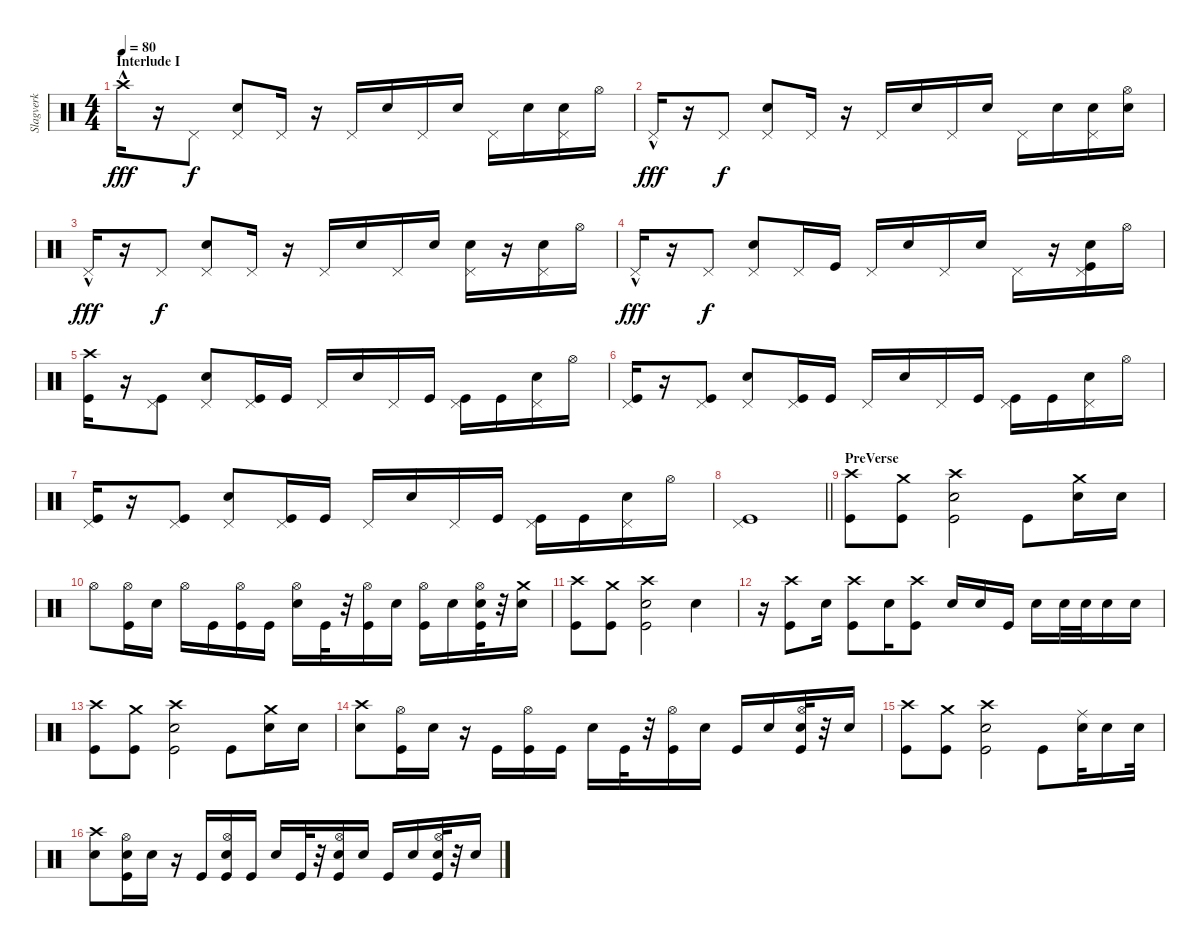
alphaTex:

\track ("Slagverk" "Slagverk") {instrument percussion}
\staff {score}
\articulation defaults
\ts (4 4)
\section ("" "Interlude I")
\tempo 80
\clef neutral
\ks c "Crash high (hit)"{hac}.16{dy fff}
r.16 "Pedal Hi-Hat (hit)".8{dy f} ("Pedal Hi-Hat (hit)" "Snare (hit) 2").8 "Pedal Hi-Hat (hit)".16 r.16 "Pedal Hi-Hat (hit)".16 "Snare (hit) 2".16 "Pedal Hi-Hat (hit)".16 "Snare (hit) 2".16 "Pedal Hi-Hat (hit)".16 "Snare (hit) 2".16 ("Pedal Hi-Hat (hit)" "Snare (hit) 2").16 "Hi-Hat (open)".16 |
"Pedal Hi-Hat (hit)"{hac}.16{dy fff} r.16 "Pedal Hi-Hat (hit)".8{dy f} ("Pedal Hi-Hat (hit)" "Snare (hit) 2").8 "Pedal Hi-Hat (hit)".16 r.16 "Pedal Hi-Hat (hit)".16 "Snare (hit) 2".16 "Pedal Hi-Hat (hit)".16 "Snare (hit) 2".16 "Pedal Hi-Hat (hit)".16 "Snare (hit) 2".16 ("Pedal Hi-Hat (hit)" "Snare (hit) 2").16 ("Hi-Hat (open)" "Snare (hit) 2").16 |
"Pedal Hi-Hat (hit)"{hac}.16{dy fff} r.16 "Pedal Hi-Hat (hit)".8{dy f} ("Pedal Hi-Hat (hit)" "Snare (hit) 2").8 "Pedal Hi-Hat (hit)".16 r.16 "Pedal Hi-Hat (hit)".16 "Snare (hit) 2".16 "Pedal Hi-Hat (hit)".16 "Snare (hit) 2".16 ("Pedal Hi-Hat (hit)" "Snare (hit) 2").16 r.16 ("Pedal Hi-Hat (hit)" "Snare (hit) 2").16 "Hi-Hat (open)".16 |
"Pedal Hi-Hat (hit)"{hac}.16{dy fff} r.16 "Pedal Hi-Hat (hit)".8{dy f} ("Pedal Hi-Hat (hit)" "Snare (hit) 2").8 "Pedal Hi-Hat (hit)".16 "Kick (hit)".16 "Pedal Hi-Hat (hit)".16 "Snare (hit) 2".16 "Pedal Hi-Hat (hit)".16 "Snare (hit) 2".16 "Pedal Hi-Hat (hit)".16 r.16 ("Pedal Hi-Hat (hit)" "Snare (hit) 2" "Kick (hit)").16 "Hi-Hat (open)".16 |
("Crash high (hit)" "Kick (hit)").16 r.16 ("Pedal Hi-Hat (hit)" "Kick (hit)").8 ("Pedal Hi-Hat (hit)" "Snare (hit) 2").8 ("Pedal Hi-Hat (hit)" "Kick (hit)").16 "Kick (hit)".16 "Pedal Hi-Hat (hit)".16 "Snare (hit) 2".16 "Pedal Hi-Hat (hit)".16 "Kick (hit)".16 ("Pedal Hi-Hat (hit)" "Kick (hit)").16 "Kick (hit)".16 ("Pedal Hi-Hat (hit)" "Snare (hit) 2").16 "Hi-Hat (open)".16 |
("Pedal Hi-Hat (hit)" "Kick (hit)").16 r.16 ("Pedal Hi-Hat (hit)" "Kick (hit)").8 ("Pedal Hi-Hat (hit)" "Snare (hit) 2").8 ("Pedal Hi-Hat (hit)" "Kick (hit)").16 "Kick (hit)".16 "Pedal Hi-Hat (hit)".16 "Snare (hit) 2".16 "Pedal Hi-Hat (hit)".16 "Kick (hit)".16 ("Pedal Hi-Hat (hit)" "Kick (hit)").16 "Kick (hit)".16 ("Pedal Hi-Hat (hit)" "Snare (hit) 2").16 "Hi-Hat (open)".16 |
("Pedal Hi-Hat (hit)" "Kick (hit)").16 r.16 ("Pedal Hi-Hat (hit)" "Kick (hit)").8 ("Pedal Hi-Hat (hit)" "Snare (hit) 2").8 ("Pedal Hi-Hat (hit)" "Kick (hit)").16 "Kick (hit)".16 "Pedal Hi-Hat (hit)".16 "Snare (hit) 2".16 "Pedal Hi-Hat (hit)".16 "Kick (hit)".16 ("Pedal Hi-Hat (hit)" "Kick (hit)").16 "Kick (hit)".16 ("Pedal Hi-Hat (hit)" "Snare (hit) 2").16 "Hi-Hat (open)".16 |
\barLineRight lightlight
("Pedal Hi-Hat (hit)" "Kick (hit)").1 |
\section ("" "PreVerse")
("Crash high (hit)" "Kick (hit)").8 ("Crash medium (hit)" "Kick (hit)").8 ("Crash high (hit)" "Snare (hit) 2" "Kick (hit)").2 "Kick (hit)".8 ("Crash medium (hit)" "Snare (hit) 2").16 "Snare (hit) 2".16 |
"Hi-Hat (open)".8 ("Hi-Hat (open)" "Kick (hit)").16 "Snare (hit) 2".16 "Hi-Hat (open)".16 "Kick (hit)".16 ("Hi-Hat (open)" "Kick (hit)").16 "Kick (hit)".16 ("Hi-Hat (open)" "Snare (hit) 2").16 "Kick (hit)".32 r.32 ("Hi-Hat (open)" "Kick (hit)").16 "Snare (hit) 2".16 ("Hi-Hat (open)" "Kick (hit)").16 "Snare (hit) 2".16 ("Hi-Hat (open)" "Snare (hit) 2" "Kick (hit)").32 r.32 ("Crash medium (hit)" "Snare (hit) 2").16 |
("Crash high (hit)" "Kick (hit)").8 ("Crash medium (hit)" "Kick (hit)").8 ("Crash high (hit)" "Snare (hit) 2" "Kick (hit)").2 "Snare (hit) 2".4 |
r.16 ("Crash high (hit)" "Kick (hit)").8 "Snare (hit) 2".16 ("Crash high (hit)" "Kick (hit)").8 "Snare (hit) 2".16 ("Crash high (hit)" "Kick (hit)").8 "Snare (hit) 2".16 "Snare (hit) 2".16 "Kick (hit)".16 "Snare (hit) 2".16 "Snare (hit) 2".32 "Snare (hit) 2".32 "Snare (hit) 2".16 "Snare (hit) 2".16 |
("Crash high (hit)" "Kick (hit)").8 ("Crash medium (hit)" "Kick (hit)").8 ("Crash high (hit)" "Snare (hit) 2" "Kick (hit)").2 "Kick (hit)".8 ("Crash medium (hit)" "Snare (hit) 2").16 "Snare (hit) 2".16 |
("Crash high (hit)" "Snare (hit) 2").8 ("Hi-Hat (open)" "Kick (hit)").16 "Snare (hit) 2".16 r.16 "Kick (hit)".16 ("Hi-Hat (open)" "Kick (hit)").16 "Kick (hit)".16 "Snare (hit) 2".16 "Kick (hit)".32 r.32 ("Hi-Hat (open)" "Kick (hit)").16 "Snare (hit) 2".16 "Kick (hit)".16 "Snare (hit) 2".16 ("Hi-Hat (open)" "Snare (hit) 2" "Kick (hit)").32 r.32 "Snare (hit) 2".16 |
("Crash high (hit)" "Kick (hit)").8 ("Crash medium (hit)" "Kick (hit)").8 ("Crash high (hit)" "Snare (hit) 2" "Kick (hit)").2 "Kick (hit)".8 ("Ride (middle)" "Snare (hit) 2").32 "Snare (hit) 2".16 "Snare (hit) 2".32 |
("Crash high (hit)" "Snare (hit) 2").8 ("Hi-Hat (open)" "Snare (hit) 2" "Kick (hit)").16 "Snare (hit) 2".16 r.16 "Kick (hit)".16 ("Hi-Hat (open)" "Snare (hit) 2" "Kick (hit)").16 "Kick (hit)".16 "Snare (hit) 2".16 "Kick (hit)".32 r.32 ("Hi-Hat (open)" "Snare (hit) 2" "Kick (hit)").16 "Snare (hit) 2".16 "Kick (hit)".16 "Snare (hit) 2".16 ("Hi-Hat (open)" "Snare (hit) 2" "Kick (hit)").32 r.32 "Snare (hit) 2".16
